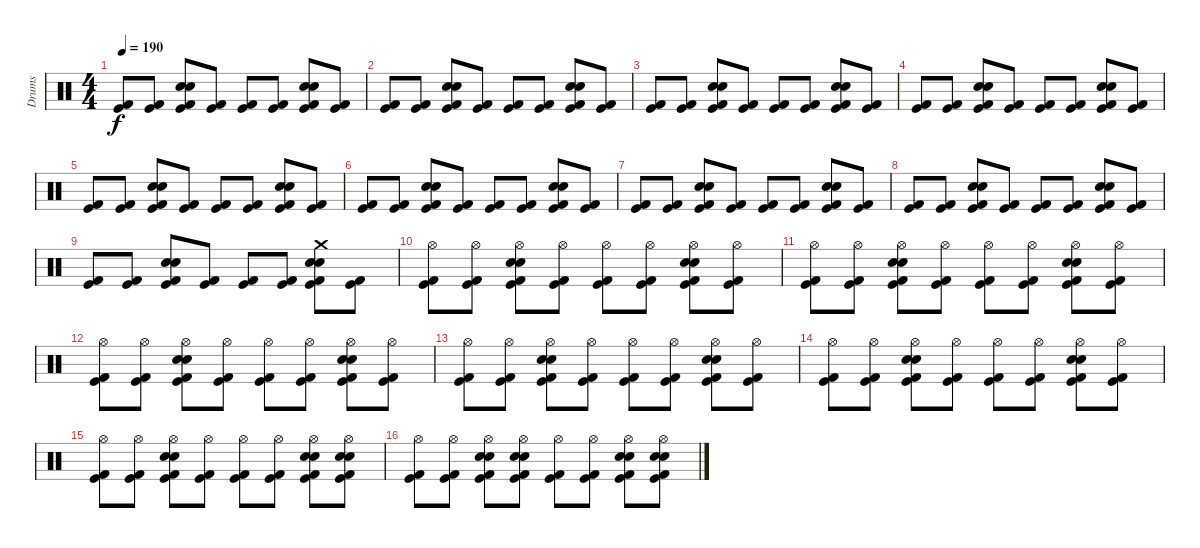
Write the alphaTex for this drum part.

\track ("Drums" "Drums") {instrument percussion}
\staff {score}
\articulation defaults
\ts (4 4)
\tempo 190
\clef neutral
\ks c
("Kick (hit) 2" "Kick (hit)").8{dy f} ("Kick (hit) 2" "Kick (hit)").8 ("Snare (hit) 2" "Electric Snare (hit)" "Kick (hit) 2" "Kick (hit)").8 ("Kick (hit) 2" "Kick (hit)").8 ("Kick (hit) 2" "Kick (hit)").8 ("Kick (hit) 2" "Kick (hit)").8 ("Snare (hit) 2" "Electric Snare (hit)" "Kick (hit) 2" "Kick (hit)").8 ("Kick (hit) 2" "Kick (hit)").8 |
("Kick (hit) 2" "Kick (hit)").8 ("Kick (hit) 2" "Kick (hit)").8 ("Snare (hit) 2" "Electric Snare (hit)" "Kick (hit) 2" "Kick (hit)").8 ("Kick (hit) 2" "Kick (hit)").8 ("Kick (hit) 2" "Kick (hit)").8 ("Kick (hit) 2" "Kick (hit)").8 ("Snare (hit) 2" "Electric Snare (hit)" "Kick (hit) 2" "Kick (hit)").8 ("Kick (hit) 2" "Kick (hit)").8 |
("Kick (hit) 2" "Kick (hit)").8 ("Kick (hit) 2" "Kick (hit)").8 ("Snare (hit) 2" "Electric Snare (hit)" "Kick (hit) 2" "Kick (hit)").8 ("Kick (hit) 2" "Kick (hit)").8 ("Kick (hit) 2" "Kick (hit)").8 ("Kick (hit) 2" "Kick (hit)").8 ("Snare (hit) 2" "Electric Snare (hit)" "Kick (hit) 2" "Kick (hit)").8 ("Kick (hit) 2" "Kick (hit)").8 |
("Kick (hit) 2" "Kick (hit)").8 ("Kick (hit) 2" "Kick (hit)").8 ("Snare (hit) 2" "Electric Snare (hit)" "Kick (hit) 2" "Kick (hit)").8 ("Kick (hit) 2" "Kick (hit)").8 ("Kick (hit) 2" "Kick (hit)").8 ("Kick (hit) 2" "Kick (hit)").8 ("Snare (hit) 2" "Electric Snare (hit)" "Kick (hit) 2" "Kick (hit)").8 ("Kick (hit) 2" "Kick (hit)").8 |
("Kick (hit) 2" "Kick (hit)").8 ("Kick (hit) 2" "Kick (hit)").8 ("Snare (hit) 2" "Electric Snare (hit)" "Kick (hit) 2" "Kick (hit)").8 ("Kick (hit) 2" "Kick (hit)").8 ("Kick (hit) 2" "Kick (hit)").8 ("Kick (hit) 2" "Kick (hit)").8 ("Snare (hit) 2" "Electric Snare (hit)" "Kick (hit) 2" "Kick (hit)").8 ("Kick (hit) 2" "Kick (hit)").8 |
("Kick (hit) 2" "Kick (hit)").8 ("Kick (hit) 2" "Kick (hit)").8 ("Snare (hit) 2" "Electric Snare (hit)" "Kick (hit) 2" "Kick (hit)").8 ("Kick (hit) 2" "Kick (hit)").8 ("Kick (hit) 2" "Kick (hit)").8 ("Kick (hit) 2" "Kick (hit)").8 ("Snare (hit) 2" "Electric Snare (hit)" "Kick (hit) 2" "Kick (hit)").8 ("Kick (hit) 2" "Kick (hit)").8 |
("Kick (hit) 2" "Kick (hit)").8 ("Kick (hit) 2" "Kick (hit)").8 ("Snare (hit) 2" "Electric Snare (hit)" "Kick (hit) 2" "Kick (hit)").8 ("Kick (hit) 2" "Kick (hit)").8 ("Kick (hit) 2" "Kick (hit)").8 ("Kick (hit) 2" "Kick (hit)").8 ("Snare (hit) 2" "Electric Snare (hit)" "Kick (hit) 2" "Kick (hit)").8 ("Kick (hit) 2" "Kick (hit)").8 |
("Kick (hit) 2" "Kick (hit)").8 ("Kick (hit) 2" "Kick (hit)").8 ("Snare (hit) 2" "Electric Snare (hit)" "Kick (hit) 2" "Kick (hit)").8 ("Kick (hit) 2" "Kick (hit)").8 ("Kick (hit) 2" "Kick (hit)").8 ("Kick (hit) 2" "Kick (hit)").8 ("Snare (hit) 2" "Electric Snare (hit)" "Kick (hit) 2" "Kick (hit)").8 ("Kick (hit) 2" "Kick (hit)").8 |
("Kick (hit) 2" "Kick (hit)").8 ("Kick (hit) 2" "Kick (hit)").8 ("Snare (hit) 2" "Electric Snare (hit)" "Kick (hit) 2" "Kick (hit)").8 ("Kick (hit) 2" "Kick (hit)").8 ("Kick (hit) 2" "Kick (hit)").8 ("Kick (hit) 2" "Kick (hit)").8 ("Crash medium (hit)" "Snare (hit) 2" "Electric Snare (hit)" "Kick (hit) 2" "Kick (hit)").8 ("Kick (hit) 2" "Kick (hit)").8 |
("Hi-Hat (open)" "Kick (hit) 2" "Kick (hit)").8 ("Hi-Hat (open)" "Kick (hit) 2" "Kick (hit)").8 ("Hi-Hat (open)" "Electric Snare (hit)" "Kick (hit)" "Kick (hit) 2" "Snare (hit) 2").8 ("Hi-Hat (open)" "Kick (hit) 2" "Kick (hit)").8 ("Hi-Hat (open)" "Kick (hit) 2" "Kick (hit)").8 ("Hi-Hat (open)" "Kick (hit) 2" "Kick (hit)").8 ("Hi-Hat (open)" "Electric Snare (hit)" "Kick (hit)" "Kick (hit) 2" "Snare (hit) 2").8 ("Hi-Hat (open)" "Kick (hit) 2" "Kick (hit)").8 |
("Hi-Hat (open)" "Kick (hit) 2" "Kick (hit)").8 ("Hi-Hat (open)" "Kick (hit) 2" "Kick (hit)").8 ("Hi-Hat (open)" "Electric Snare (hit)" "Kick (hit)" "Kick (hit) 2" "Snare (hit) 2").8 ("Hi-Hat (open)" "Kick (hit) 2" "Kick (hit)").8 ("Hi-Hat (open)" "Kick (hit) 2" "Kick (hit)").8 ("Hi-Hat (open)" "Kick (hit) 2" "Kick (hit)").8 ("Hi-Hat (open)" "Electric Snare (hit)" "Kick (hit)" "Kick (hit) 2" "Snare (hit) 2").8 ("Hi-Hat (open)" "Kick (hit) 2" "Kick (hit)").8 |
("Hi-Hat (open)" "Kick (hit) 2" "Kick (hit)").8 ("Hi-Hat (open)" "Kick (hit) 2" "Kick (hit)").8 ("Hi-Hat (open)" "Electric Snare (hit)" "Kick (hit)" "Kick (hit) 2" "Snare (hit) 2").8 ("Hi-Hat (open)" "Kick (hit) 2" "Kick (hit)").8 ("Hi-Hat (open)" "Kick (hit) 2" "Kick (hit)").8 ("Hi-Hat (open)" "Kick (hit) 2" "Kick (hit)").8 ("Hi-Hat (open)" "Electric Snare (hit)" "Kick (hit)" "Kick (hit) 2" "Snare (hit) 2").8 ("Hi-Hat (open)" "Kick (hit) 2" "Kick (hit)").8 |
("Hi-Hat (open)" "Kick (hit) 2" "Kick (hit)").8 ("Hi-Hat (open)" "Kick (hit) 2" "Kick (hit)").8 ("Hi-Hat (open)" "Electric Snare (hit)" "Kick (hit)" "Kick (hit) 2" "Snare (hit) 2").8 ("Hi-Hat (open)" "Kick (hit) 2" "Kick (hit)").8 ("Hi-Hat (open)" "Kick (hit) 2" "Kick (hit)").8 ("Hi-Hat (open)" "Kick (hit) 2" "Kick (hit)").8 ("Hi-Hat (open)" "Electric Snare (hit)" "Kick (hit)" "Kick (hit) 2" "Snare (hit) 2").8 ("Hi-Hat (open)" "Kick (hit) 2" "Kick (hit)").8 |
("Hi-Hat (open)" "Kick (hit) 2" "Kick (hit)").8 ("Hi-Hat (open)" "Kick (hit) 2" "Kick (hit)").8 ("Hi-Hat (open)" "Electric Snare (hit)" "Kick (hit)" "Kick (hit) 2" "Snare (hit) 2").8 ("Hi-Hat (open)" "Kick (hit) 2" "Kick (hit)").8 ("Hi-Hat (open)" "Kick (hit) 2" "Kick (hit)").8 ("Hi-Hat (open)" "Kick (hit) 2" "Kick (hit)").8 ("Hi-Hat (open)" "Electric Snare (hit)" "Kick (hit)" "Kick (hit) 2" "Snare (hit) 2").8 ("Hi-Hat (open)" "Kick (hit) 2" "Kick (hit)").8 |
("Hi-Hat (open)" "Kick (hit) 2" "Kick (hit)").8 ("Hi-Hat (open)" "Kick (hit) 2" "Kick (hit)").8 ("Hi-Hat (open)" "Electric Snare (hit)" "Kick (hit)" "Kick (hit) 2" "Snare (hit) 2").8 ("Hi-Hat (open)" "Kick (hit) 2" "Kick (hit)").8 ("Hi-Hat (open)" "Kick (hit) 2" "Kick (hit)").8 ("Hi-Hat (open)" "Kick (hit) 2" "Kick (hit)").8 ("Hi-Hat (open)" "Electric Snare (hit)" "Kick (hit)" "Kick (hit) 2" "Snare (hit) 2").8 ("Snare (hit) 2" "Electric Snare (hit)" "Hi-Hat (open)" "Kick (hit) 2" "Kick (hit)").8 |
("Hi-Hat (open)" "Kick (hit) 2" "Kick (hit)").8 ("Hi-Hat (open)" "Kick (hit) 2" "Kick (hit)").8 ("Hi-Hat (open)" "Electric Snare (hit)" "Kick (hit)" "Kick (hit) 2" "Snare (hit) 2").8 ("Snare (hit) 2" "Electric Snare (hit)" "Hi-Hat (open)" "Kick (hit) 2" "Kick (hit)").8 ("Hi-Hat (open)" "Kick (hit) 2" "Kick (hit)").8 ("Hi-Hat (open)" "Kick (hit) 2" "Kick (hit)").8 ("Hi-Hat (open)" "Electric Snare (hit)" "Kick (hit)" "Kick (hit) 2" "Snare (hit) 2").8 ("Snare (hit) 2" "Electric Snare (hit)" "Hi-Hat (open)" "Kick (hit) 2" "Kick (hit)").8
